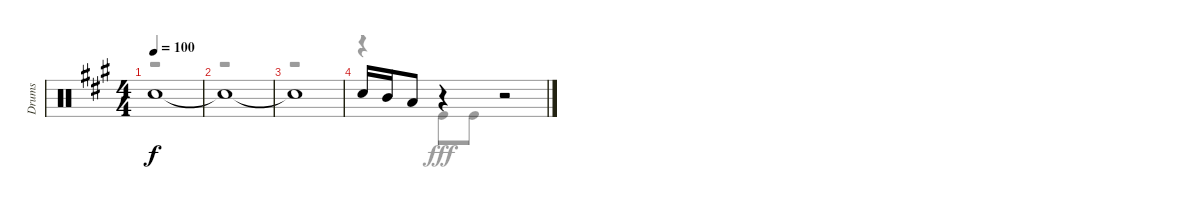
\track ("Drums" "Drums") {instrument percussion}
\staff {score}
\articulation defaults
\voice
\ts (4 4)
\tempo 100
\clef neutral
\ks a "Snare (hit)"{t}.1{dy f}
|
"Snare (hit)"{t}.1 |
"Snare (hit)"{t}.1 |
"Snare (hit) 2".16 "Mid Tom (hit)".16 "Low Tom (hit)".8 r.4 r.2
\voice
\clef neutral
\ottava regular
\simile none
\ks a
r.1{dy fff} |
r.1 |
r.1 |
r.4 "Kick (hit)".8 "Kick (hit)".8 r.2
